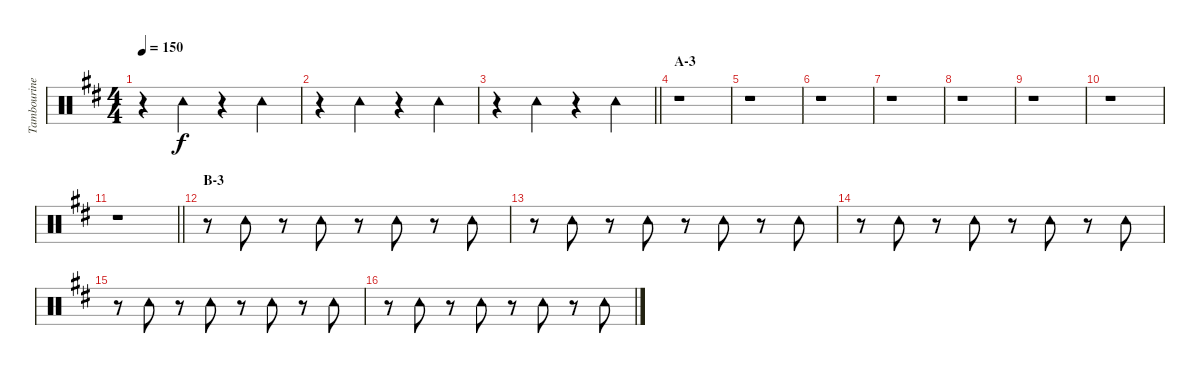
\track ("Tambourine" "Tambourine") {instrument percussion}
\staff {score}
\articulation defaults
\ts (4 4)
\tempo 150
\clef neutral
\ks d
r.4{dy f} "Tambourine (hit)".4 r.4 "Tambourine (hit)".4 |
r.4 "Tambourine (hit)".4 r.4 "Tambourine (hit)".4 |
\barLineRight lightlight
r.4 "Tambourine (hit)".4 r.4 "Tambourine (hit)".4 |
\section ("" "A-3")
r.1 |
r.1 |
r.1 |
r.1 |
r.1 |
r.1 |
r.1 |
\barLineRight lightlight
r.1 |
\section ("" "B-3")
r.8 "Tambourine (hit)".8 r.8 "Tambourine (hit)".8 r.8 "Tambourine (hit)".8 r.8 "Tambourine (hit)".8 |
r.8 "Tambourine (hit)".8 r.8 "Tambourine (hit)".8 r.8 "Tambourine (hit)".8 r.8 "Tambourine (hit)".8 |
r.8 "Tambourine (hit)".8 r.8 "Tambourine (hit)".8 r.8 "Tambourine (hit)".8 r.8 "Tambourine (hit)".8 |
r.8 "Tambourine (hit)".8 r.8 "Tambourine (hit)".8 r.8 "Tambourine (hit)".8 r.8 "Tambourine (hit)".8 |
r.8 "Tambourine (hit)".8 r.8 "Tambourine (hit)".8 r.8 "Tambourine (hit)".8 r.8 "Tambourine (hit)".8
